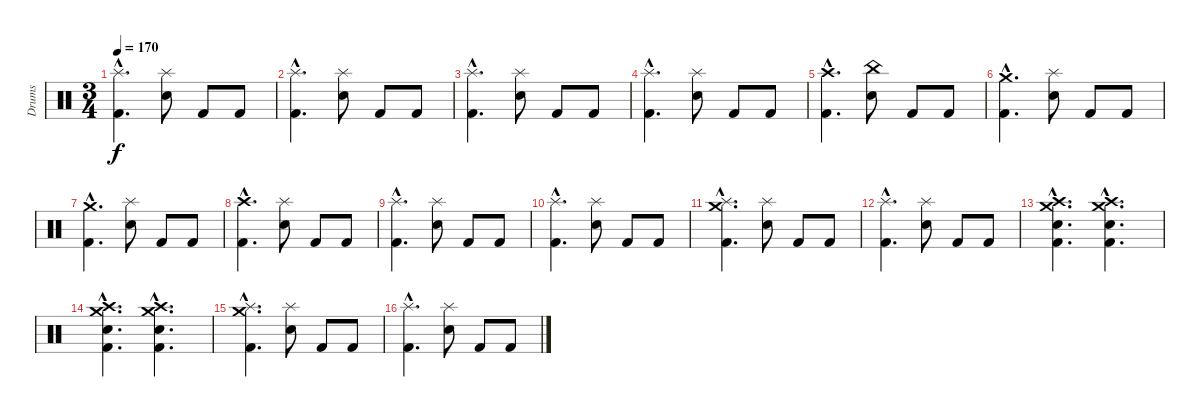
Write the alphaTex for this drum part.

\track ("Drums" "Drums") {instrument percussion}
\staff {score}
\articulation defaults
\ts (3 4)
\tempo 170
\clef neutral
\ks c
("Splash (hit)"{hac} "Kick (hit) 2"{hac}).4{d dy f} ("Splash (hit)" "Electric Snare (hit)").8 "Kick (hit) 2".8 "Kick (hit) 2".8 |
("Splash (hit)"{hac} "Kick (hit) 2"{hac}).4{d} ("Splash (hit)" "Electric Snare (hit)").8 "Kick (hit) 2".8 "Kick (hit) 2".8 |
("Splash (hit)"{hac} "Kick (hit) 2"{hac}).4{d} ("Splash (hit)" "Electric Snare (hit)").8 "Kick (hit) 2".8 "Kick (hit) 2".8 |
("Splash (hit)"{hac} "Kick (hit) 2"{hac}).4{d} ("Splash (hit)" "Electric Snare (hit)").8 "Kick (hit) 2".8 "Kick (hit) 2".8 |
("Crash high (hit)"{hac} "Kick (hit) 2"{hac}).4{d} ("China (hit)" "Electric Snare (hit)").8 "Kick (hit) 2".8 "Kick (hit) 2".8 |
("Crash medium (hit)"{hac} "Kick (hit) 2"{hac}).4{d} ("Splash (hit)" "Electric Snare (hit)").8 "Kick (hit) 2".8 "Kick (hit) 2".8 |
("Crash medium (hit)"{hac} "Kick (hit) 2"{hac}).4{d} ("Splash (hit)" "Electric Snare (hit)").8 "Kick (hit) 2".8 "Kick (hit) 2".8 |
("Crash high (hit)"{hac} "Kick (hit) 2"{hac}).4{d} ("Splash (hit)" "Electric Snare (hit)").8 "Kick (hit) 2".8 "Kick (hit) 2".8 |
("Splash (hit)"{hac} "Kick (hit) 2"{hac}).4{d} ("Splash (hit)" "Electric Snare (hit)").8 "Kick (hit) 2".8 "Kick (hit) 2".8 |
("Splash (hit)"{hac} "Kick (hit) 2"{hac}).4{d} ("Splash (hit)" "Electric Snare (hit)").8 "Kick (hit) 2".8 "Kick (hit) 2".8 |
("Crash medium (hit)"{hac} "Splash (hit)"{hac} "Kick (hit) 2"{hac}).4{d} ("Splash (hit)" "Electric Snare (hit)").8 "Kick (hit) 2".8 "Kick (hit) 2".8 |
("Splash (hit)"{hac} "Kick (hit) 2"{hac}).4{d} ("Splash (hit)" "Electric Snare (hit)").8 "Kick (hit) 2".8 "Kick (hit) 2".8 |
("Crash high (hit)"{hac} "Crash medium (hit)"{hac} "Electric Snare (hit)"{hac} "Kick (hit) 2"{hac}).4{d} ("Crash high (hit)"{hac} "Crash medium (hit)"{hac} "Electric Snare (hit)"{hac} "Kick (hit) 2"{hac}).4{d} |
("Crash high (hit)"{hac} "Crash medium (hit)"{hac} "Electric Snare (hit)"{hac} "Kick (hit) 2"{hac}).4{d} ("Crash high (hit)"{hac} "Crash medium (hit)"{hac} "Electric Snare (hit)"{hac} "Kick (hit) 2"{hac}).4{d} |
("Crash medium (hit)"{hac} "Splash (hit)"{hac} "Kick (hit) 2"{hac}).4{d} ("Splash (hit)" "Electric Snare (hit)").8 "Kick (hit) 2".8 "Kick (hit) 2".8 |
("Splash (hit)"{hac} "Kick (hit) 2"{hac}).4{d} ("Splash (hit)" "Electric Snare (hit)").8 "Kick (hit) 2".8 "Kick (hit) 2".8
